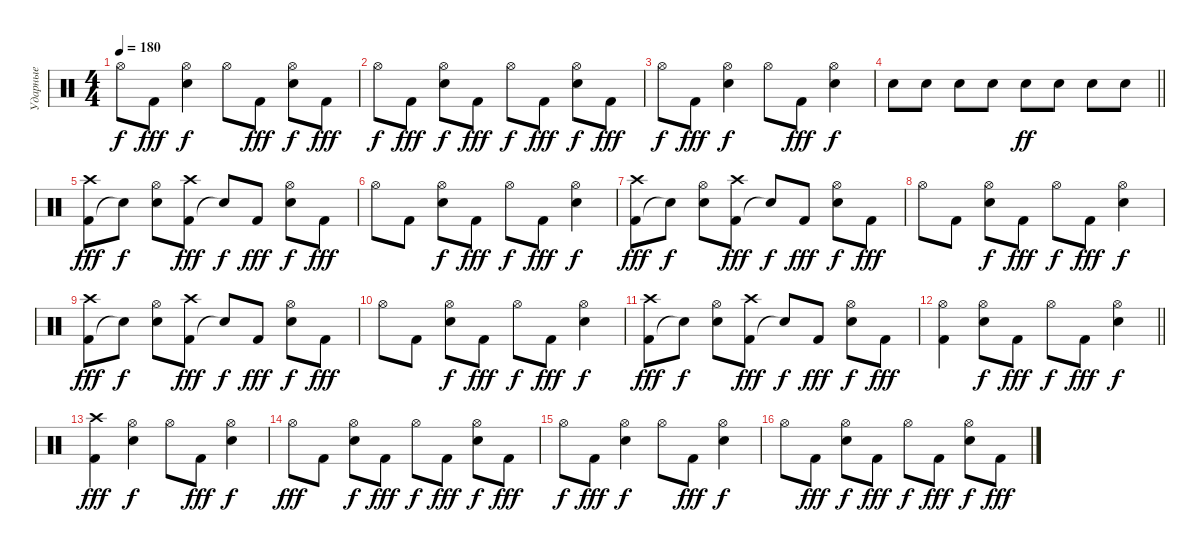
\track ("Ударные" "Ударные") {instrument percussion}
\staff
\articulation defaults
\ts (4 4)
\tempo 180
\clef neutral
\ks c "Hi-Hat (open)".8{dy f} "Kick (hit) 2".8{dy fff}
("Snare (hit) 2" "Hi-Hat (open)").4{dy f} "Hi-Hat (open)".8 "Kick (hit) 2".8{dy fff} ("Snare (hit) 2" "Hi-Hat (open)").8{dy f} "Kick (hit) 2".8{dy fff} |
"Hi-Hat (open)".8{dy f} "Kick (hit) 2".8{dy fff} ("Snare (hit) 2" "Hi-Hat (open)").8{dy f} "Kick (hit) 2".8{dy fff} "Hi-Hat (open)".8{dy f} "Kick (hit) 2".8{dy fff} ("Snare (hit) 2" "Hi-Hat (open)").8{dy f} "Kick (hit) 2".8{dy fff} |
"Hi-Hat (open)".8{dy f} "Kick (hit) 2".8{dy fff} ("Snare (hit) 2" "Hi-Hat (open)").4{dy f} "Hi-Hat (open)".8 "Kick (hit) 2".8{dy fff} ("Snare (hit) 2" "Hi-Hat (open)").4{dy f} |
\barLineRight lightlight "Snare (hit) 2".8 "Snare (hit) 2".8 "Electric Snare (hit)".8 "Electric Snare (hit)".8 "Electric Snare (hit)".8{dy ff} "Electric Snare (hit)".8 "Electric Snare (hit)".8 "Electric Snare (hit)".8
|
("Kick (hit) 2" "Crash high (hit)").8{dy fff} "Snare (hit)"{t}.8{dy f} ("Snare (hit) 2" "Hi-Hat (open)").8 ("Kick (hit) 2" "Crash high (hit)").8{dy fff} "Snare (hit)"{t}.8{dy f} "Kick (hit) 2".8{dy fff} ("Snare (hit) 2" "Hi-Hat (open)").8{dy f} "Kick (hit) 2".8{dy fff} |
"Hi-Hat (open)".8 "Kick (hit) 2".8 ("Snare (hit) 2" "Hi-Hat (open)").8{dy f} "Kick (hit) 2".8{dy fff} "Hi-Hat (open)".8{dy f} "Kick (hit) 2".8{dy fff} ("Snare (hit) 2" "Hi-Hat (open)").4{dy f} |
("Kick (hit) 2" "Crash high (hit)").8{dy fff} "Snare (hit)"{t}.8{dy f} ("Snare (hit) 2" "Hi-Hat (open)").8 ("Kick (hit) 2" "Crash high (hit)").8{dy fff} "Snare (hit)"{t}.8{dy f} "Kick (hit) 2".8{dy fff} ("Snare (hit) 2" "Hi-Hat (open)").8{dy f} "Kick (hit) 2".8{dy fff} |
"Hi-Hat (open)".8 "Kick (hit) 2".8 ("Snare (hit) 2" "Hi-Hat (open)").8{dy f} "Kick (hit) 2".8{dy fff} "Hi-Hat (open)".8{dy f} "Kick (hit) 2".8{dy fff} ("Snare (hit) 2" "Hi-Hat (open)").4{dy f} |
("Kick (hit) 2" "Crash high (hit)").8{dy fff} "Snare (hit)"{t}.8{dy f} ("Snare (hit) 2" "Hi-Hat (open)").8 ("Kick (hit) 2" "Crash high (hit)").8{dy fff} "Snare (hit)"{t}.8{dy f} "Kick (hit) 2".8{dy fff} ("Snare (hit) 2" "Hi-Hat (open)").8{dy f} "Kick (hit) 2".8{dy fff} |
"Hi-Hat (open)".8 "Kick (hit) 2".8 ("Snare (hit) 2" "Hi-Hat (open)").8{dy f} "Kick (hit) 2".8{dy fff} "Hi-Hat (open)".8{dy f} "Kick (hit) 2".8{dy fff} ("Snare (hit) 2" "Hi-Hat (open)").4{dy f} |
("Kick (hit) 2" "Crash high (hit)").8{dy fff} "Snare (hit)"{t}.8{dy f} ("Snare (hit) 2" "Hi-Hat (open)").8 ("Kick (hit) 2" "Crash high (hit)").8{dy fff} "Snare (hit)"{t}.8{dy f} "Kick (hit) 2".8{dy fff} ("Snare (hit) 2" "Hi-Hat (open)").8{dy f} "Kick (hit) 2".8{dy fff} |
\barLineRight lightlight
("Kick (hit) 2" "Hi-Hat (open)").4 ("Snare (hit) 2" "Hi-Hat (open)").8{dy f} "Kick (hit) 2".8{dy fff} "Hi-Hat (open)".8{dy f} "Kick (hit) 2".8{dy fff} ("Snare (hit) 2" "Hi-Hat (open)").4{dy f} |
("Kick (hit) 2" "Crash high (hit)").4{dy fff} ("Snare (hit) 2" "Hi-Hat (open)").4{dy f} "Hi-Hat (open)".8 "Kick (hit) 2".8{dy fff} ("Snare (hit) 2" "Hi-Hat (open)").4{dy f} |
"Hi-Hat (open)".8{dy fff} "Kick (hit) 2".8 ("Snare (hit) 2" "Hi-Hat (open)").8{dy f} "Kick (hit) 2".8{dy fff} "Hi-Hat (open)".8{dy f} "Kick (hit) 2".8{dy fff} ("Snare (hit) 2" "Hi-Hat (open)").8{dy f} "Kick (hit) 2".8{dy fff} |
"Hi-Hat (open)".8{dy f} "Kick (hit) 2".8{dy fff} ("Snare (hit) 2" "Hi-Hat (open)").4{dy f} "Hi-Hat (open)".8 "Kick (hit) 2".8{dy fff} ("Snare (hit) 2" "Hi-Hat (open)").4{dy f} |
"Hi-Hat (open)".8 "Kick (hit) 2".8{dy fff} ("Snare (hit) 2" "Hi-Hat (open)").8{dy f} "Kick (hit) 2".8{dy fff} "Hi-Hat (open)".8{dy f} "Kick (hit) 2".8{dy fff} ("Snare (hit) 2" "Hi-Hat (open)").8{dy f} "Kick (hit) 2".8{dy fff}
